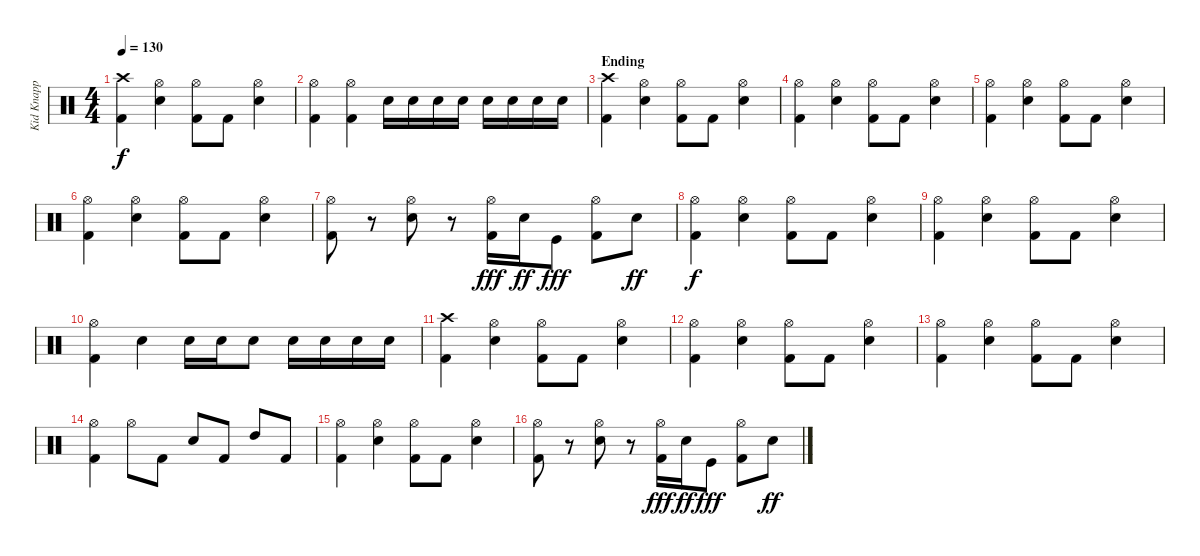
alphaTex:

\track ("Kid Knapp (Drums)" "Kid Knapp ") {instrument percussion}
\staff {score}
\articulation defaults
\ts (4 4)
\tempo 130
\clef neutral
\ks c
("Crash high (hit)" "Kick (hit) 2").4{dy f} ("Hi-Hat (open)" "Electric Snare (hit)").4 ("Hi-Hat (open)" "Kick (hit) 2").8 "Kick (hit) 2".8 ("Hi-Hat (open)" "Electric Snare (hit)").4 |
("Hi-Hat (open)" "Kick (hit) 2").4 ("Hi-Hat (open)" "Kick (hit) 2").4 "Electric Snare (hit)".16 "Electric Snare (hit)".16 "Electric Snare (hit)".16 "Electric Snare (hit)".16 "Electric Snare (hit)".16 "Electric Snare (hit)".16 "Electric Snare (hit)".16 "Electric Snare (hit)".16 |
\section ("" "Ending")
("Crash high (hit)" "Kick (hit) 2").4 ("Hi-Hat (open)" "Electric Snare (hit)").4 ("Hi-Hat (open)" "Kick (hit) 2").8 "Kick (hit) 2".8 ("Hi-Hat (open)" "Electric Snare (hit)").4 |
("Hi-Hat (open)" "Kick (hit) 2").4 ("Hi-Hat (open)" "Electric Snare (hit)").4 ("Hi-Hat (open)" "Kick (hit) 2").8 "Kick (hit) 2".8 ("Hi-Hat (open)" "Electric Snare (hit)").4 |
("Hi-Hat (open)" "Kick (hit) 2").4 ("Hi-Hat (open)" "Electric Snare (hit)").4 ("Hi-Hat (open)" "Kick (hit) 2").8 "Kick (hit) 2".8 ("Hi-Hat (open)" "Electric Snare (hit)").4 |
("Hi-Hat (open)" "Kick (hit) 2").4 ("Hi-Hat (open)" "Electric Snare (hit)").4 ("Hi-Hat (open)" "Kick (hit) 2").8 "Kick (hit) 2".8 ("Hi-Hat (open)" "Electric Snare (hit)").4 |
("Hi-Hat (open)" "Kick (hit) 2").8 r.8 ("Hi-Hat (open)" "Electric Snare (hit)").8 r.8 ("Hi-Hat (open)" "Kick (hit) 2").16{dy fff} "Electric Snare (hit)".16{dy ff} "Kick (hit)".8{dy fff} ("Hi-Hat (open)" "Kick (hit) 2").8 "Electric Snare (hit)".8{dy ff} |
("Hi-Hat (open)" "Kick (hit) 2").4{dy f} ("Hi-Hat (open)" "Electric Snare (hit)").4 ("Hi-Hat (open)" "Kick (hit) 2").8 "Kick (hit) 2".8 ("Hi-Hat (open)" "Electric Snare (hit)").4 |
("Hi-Hat (open)" "Kick (hit) 2").4 ("Hi-Hat (open)" "Electric Snare (hit)").4 ("Hi-Hat (open)" "Kick (hit) 2").8 "Kick (hit) 2".8 ("Hi-Hat (open)" "Electric Snare (hit)").4 |
("Hi-Hat (open)" "Kick (hit) 2").4 "Electric Snare (hit)".4 "Electric Snare (hit)".16 "Electric Snare (hit)".16 "Electric Snare (hit)".8 "Electric Snare (hit)".16 "Electric Snare (hit)".16 "Electric Snare (hit)".16 "Electric Snare (hit)".16 |
("Crash high (hit)" "Kick (hit) 2").4 ("Hi-Hat (open)" "Electric Snare (hit)").4 ("Hi-Hat (open)" "Kick (hit) 2").8 "Kick (hit) 2".8 ("Hi-Hat (open)" "Electric Snare (hit)").4 |
("Hi-Hat (open)" "Kick (hit) 2").4 ("Hi-Hat (open)" "Electric Snare (hit)").4 ("Hi-Hat (open)" "Kick (hit) 2").8 "Kick (hit) 2".8 ("Hi-Hat (open)" "Electric Snare (hit)").4 |
("Hi-Hat (open)" "Kick (hit) 2").4 ("Hi-Hat (open)" "Electric Snare (hit)").4 ("Hi-Hat (open)" "Kick (hit) 2").8 "Kick (hit) 2".8 ("Hi-Hat (open)" "Electric Snare (hit)").4 |
("Hi-Hat (open)" "Kick (hit) 2").4 "Hi-Hat (open)".8 "Kick (hit) 2".8 "Electric Snare (hit)".8 "Kick (hit) 2".8 "High Tom (hit)".8 "Kick (hit) 2".8 |
("Hi-Hat (open)" "Kick (hit) 2").4 ("Hi-Hat (open)" "Electric Snare (hit)").4 ("Hi-Hat (open)" "Kick (hit) 2").8 "Kick (hit) 2".8 ("Hi-Hat (open)" "Electric Snare (hit)").4 |
("Hi-Hat (open)" "Kick (hit) 2").8 r.8 ("Hi-Hat (open)" "Electric Snare (hit)").8 r.8 ("Hi-Hat (open)" "Kick (hit) 2").16{dy fff} "Electric Snare (hit)".16{dy ff} "Kick (hit)".8{dy fff} ("Hi-Hat (open)" "Kick (hit) 2").8 "Electric Snare (hit)".8{dy ff}
